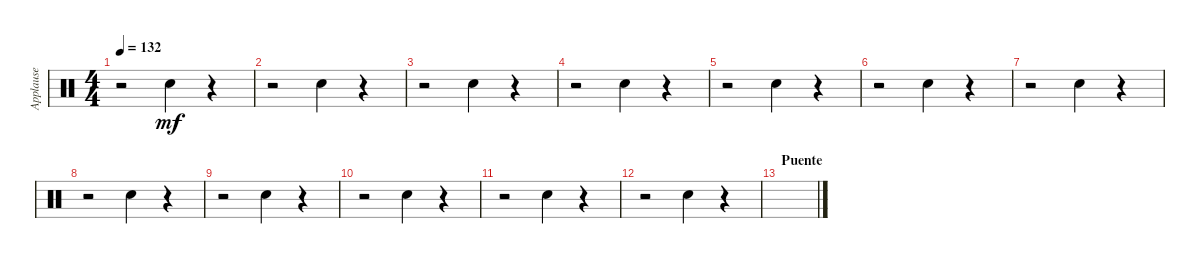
\track ("Applause" "Applause") {instrument percussion}
\staff {score}
\articulation defaults
\ts (4 4)
\tempo 132
\clef neutral
\ks c
r.2{dy mf} "Hand Clap (hit)".4 r.4 |
r.2 "Hand Clap (hit)".4 r.4 |
r.2 "Hand Clap (hit)".4 r.4 |
r.2 "Hand Clap (hit)".4 r.4 |
r.2 "Hand Clap (hit)".4 r.4 |
r.2 "Hand Clap (hit)".4 r.4 |
r.2 "Hand Clap (hit)".4 r.4 |
r.2 "Hand Clap (hit)".4 r.4 |
r.2 "Hand Clap (hit)".4 r.4 |
r.2 "Hand Clap (hit)".4 r.4 |
r.2 "Hand Clap (hit)".4 r.4 |
r.2 "Hand Clap (hit)".4 r.4 |
\section ("" "Puente")
